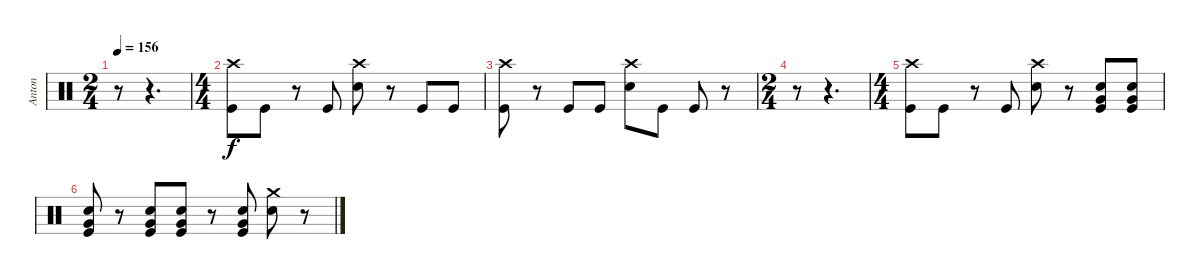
\track ("Anton " "Anton ") {instrument percussion}
\staff
\articulation defaults
\ts (2 4)
\tempo 156
\clef neutral
\ks c
r.8{dy f} r.4{d} |
\ts (4 4)
("Crash high (hit)" "Kick (hit)").8 "Kick (hit)".8 r.8 "Kick (hit)".8 ("Crash high (hit)" "Snare (hit) 2").8 r.8 "Kick (hit)".8 "Kick (hit)".8 |
("Crash high (hit)" "Kick (hit)").8 r.8 "Kick (hit)".8 "Kick (hit)".8 ("Crash high (hit)" "Snare (hit) 2").8 "Kick (hit)".8 "Kick (hit)".8 r.8 |
\ts (2 4)
r.8 r.4{d} |
\ts (4 4)
("Crash high (hit)" "Kick (hit)").8 "Kick (hit)".8 r.8 "Kick (hit)".8 ("Crash high (hit)" "Snare (hit) 2").8 r.8 ("Snare (hit) 2" "Very Low Tom (hit)" "Kick (hit)").8 ("Snare (hit) 2" "Very Low Tom (hit)" "Kick (hit)").8 |
("Snare (hit) 2" "Kick (hit)" "Very Low Tom (hit)").8 r.8 ("Snare (hit) 2" "Kick (hit)" "Very Low Tom (hit)").8 ("Snare (hit) 2" "Kick (hit)" "Very Low Tom (hit)").8 r.8 ("Snare (hit) 2" "Kick (hit)" "Very Low Tom (hit)").8 ("Crash medium (hit)" "Snare (hit) 2").8 r.8
